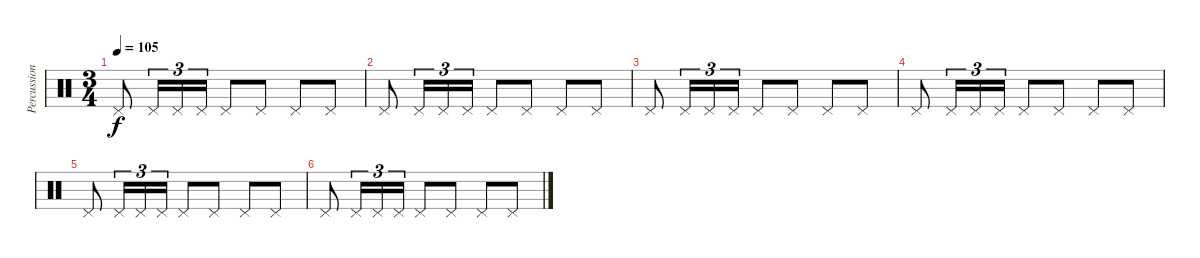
\track ("Percussion" "Percussion") {instrument percussion}
\staff {score}
\articulation defaults
\ts (3 4)
\tempo 105
\clef neutral
\ks c "Pedal Hi-Hat (hit)".8{dy f} "Pedal Hi-Hat (hit)".16{tu (3 2)} "Pedal Hi-Hat (hit)".16{tu (3 2)} "Pedal Hi-Hat (hit)".16{tu (3 2)} "Pedal Hi-Hat (hit)".8 "Pedal Hi-Hat (hit)".8 "Pedal Hi-Hat (hit)".8 "Pedal Hi-Hat (hit)".8
|
"Pedal Hi-Hat (hit)".8 "Pedal Hi-Hat (hit)".16{tu (3 2)} "Pedal Hi-Hat (hit)".16{tu (3 2)} "Pedal Hi-Hat (hit)".16{tu (3 2)} "Pedal Hi-Hat (hit)".8 "Pedal Hi-Hat (hit)".8 "Pedal Hi-Hat (hit)".8 "Pedal Hi-Hat (hit)".8 |
"Pedal Hi-Hat (hit)".8 "Pedal Hi-Hat (hit)".16{tu (3 2)} "Pedal Hi-Hat (hit)".16{tu (3 2)} "Pedal Hi-Hat (hit)".16{tu (3 2)} "Pedal Hi-Hat (hit)".8 "Pedal Hi-Hat (hit)".8 "Pedal Hi-Hat (hit)".8 "Pedal Hi-Hat (hit)".8 |
"Pedal Hi-Hat (hit)".8 "Pedal Hi-Hat (hit)".16{tu (3 2)} "Pedal Hi-Hat (hit)".16{tu (3 2)} "Pedal Hi-Hat (hit)".16{tu (3 2)} "Pedal Hi-Hat (hit)".8 "Pedal Hi-Hat (hit)".8 "Pedal Hi-Hat (hit)".8 "Pedal Hi-Hat (hit)".8 |
"Pedal Hi-Hat (hit)".8{volume 0} "Pedal Hi-Hat (hit)".16{tu (3 2)} "Pedal Hi-Hat (hit)".16{tu (3 2)} "Pedal Hi-Hat (hit)".16{tu (3 2)} "Pedal Hi-Hat (hit)".8 "Pedal Hi-Hat (hit)".8 "Pedal Hi-Hat (hit)".8 "Pedal Hi-Hat (hit)".8 |
"Pedal Hi-Hat (hit)".8 "Pedal Hi-Hat (hit)".16{tu (3 2)} "Pedal Hi-Hat (hit)".16{tu (3 2)} "Pedal Hi-Hat (hit)".16{tu (3 2)} "Pedal Hi-Hat (hit)".8 "Pedal Hi-Hat (hit)".8 "Pedal Hi-Hat (hit)".8 "Pedal Hi-Hat (hit)".8
